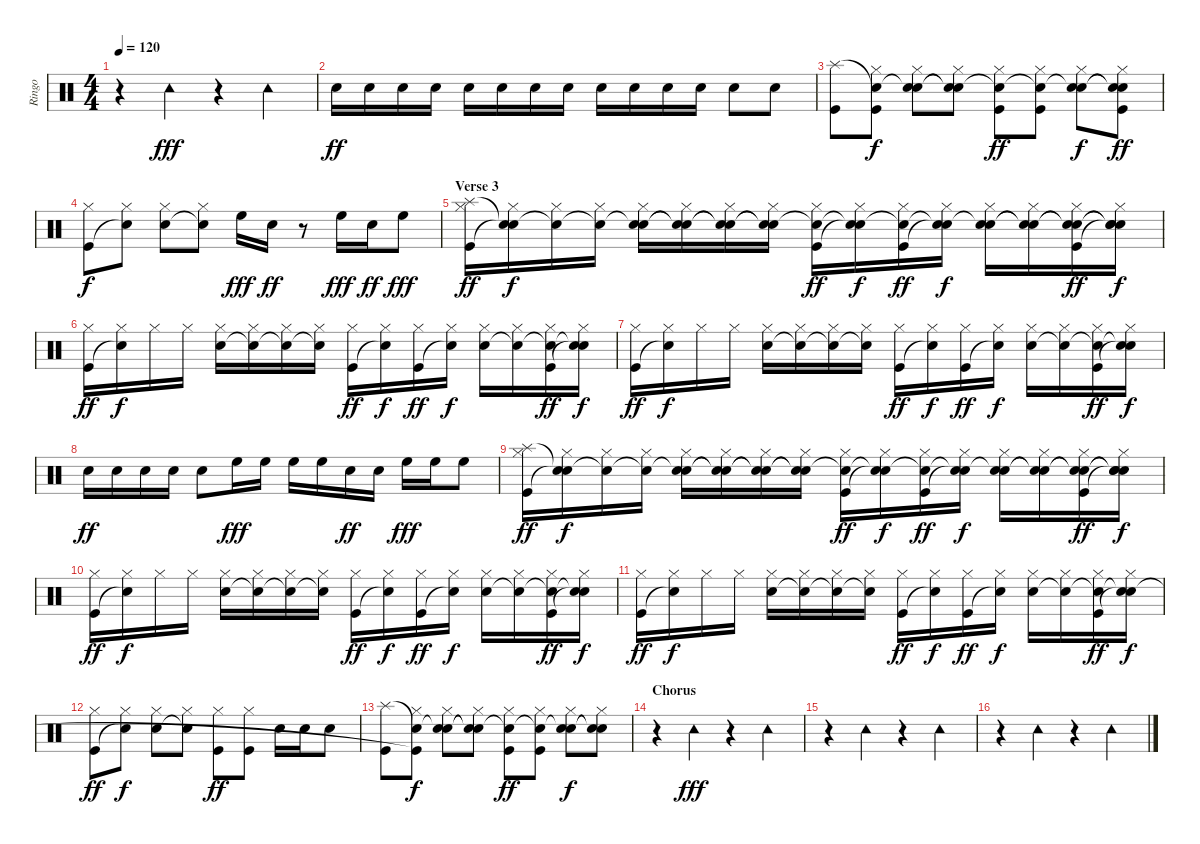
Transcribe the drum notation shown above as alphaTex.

\track ("Ringo" "Ringo") {instrument percussion}
\staff {score}
\articulation defaults
\ts (4 4)
\tempo 120
\clef neutral
\ks c
r.4{dy fff} "Tambourine (hit)".4 r.4 "Tambourine (hit)".4 |
"Electric Snare (hit)".16{dy ff} "Electric Snare (hit)".16 "Electric Snare (hit)".16 "Electric Snare (hit)".16 "Electric Snare (hit)".16 "Electric Snare (hit)".16 "Electric Snare (hit)".16 "Electric Snare (hit)".16 "Electric Snare (hit)".16 "Electric Snare (hit)".16 "Electric Snare (hit)".16 "Electric Snare (hit)".16 "Electric Snare (hit)".8 "Electric Snare (hit)".8 |
("Splash (hit)" "Kick (hit)").8 ("Snare (hit)"{t} "Hi-Hat (closed)" "Kick (hit)").8{dy f} ("Snare (hit)"{t} "Hi-Hat (closed)" "Electric Snare (hit)").8 ("Snare (hit)"{t} "Hi-Hat (closed)" "Snare (hit)"{t}).8 ("Snare (hit)"{t} "Hi-Hat (closed)" "Kick (hit)").8{dy ff} ("Snare (hit)"{t} "Hi-Hat (closed)" "Kick (hit)").8 ("Snare (hit)"{t} "Hi-Hat (closed)" "Electric Snare (hit)").8{dy f} ("Snare (hit)"{t} "Hi-Hat (closed)" "Snare (hit)"{t} "Kick (hit)").8{dy ff} |
("Hi-Hat (closed)" "Kick (hit)").8{dy f} ("Hi-Hat (closed)" "Snare (hit)"{t}).8 ("Hi-Hat (closed)" "Electric Snare (hit)").8 ("Hi-Hat (closed)" "Snare (hit)"{t}).8 "High Floor Tom (hit)".16{dy fff} "Electric Snare (hit)".16{dy ff} r.8 "High Floor Tom (hit)".16{dy fff} "Electric Snare (hit)".16{dy ff} "High Floor Tom (hit)".8{dy fff} |
\section ("" "Verse 3")
("Splash (hit)" "Hi-Hat (closed)" "Kick (hit)").16{dy ff} ("Snare (hit)"{t} "Hi-Hat (closed)" "Snare (hit)"{t}).16{dy f} ("Snare (hit)"{t} "Hi-Hat (closed)").16 ("Snare (hit)"{t} "Hi-Hat (closed)").16 ("Snare (hit)"{t} "Hi-Hat (closed)" "Electric Snare (hit)").16 ("Snare (hit)"{t} "Hi-Hat (closed)" "Snare (hit)"{t}).16 ("Snare (hit)"{t} "Hi-Hat (closed)" "Snare (hit)"{t}).16 ("Snare (hit)"{t} "Hi-Hat (closed)" "Snare (hit)"{t}).16 ("Snare (hit)"{t} "Hi-Hat (closed)" "Kick (hit)").16{dy ff} ("Snare (hit)"{t} "Hi-Hat (closed)" "Snare (hit)"{t}).16{dy f} ("Snare (hit)"{t} "Hi-Hat (closed)" "Kick (hit)").16{dy ff} ("Snare (hit)"{t} "Hi-Hat (closed)" "Snare (hit)"{t}).16{dy f} ("Snare (hit)"{t} "Hi-Hat (closed)" "Electric Snare (hit)").16 ("Snare (hit)"{t} "Hi-Hat (closed)" "Snare (hit)"{t}).16 ("Snare (hit)"{t} "Hi-Hat (closed)" "Snare (hit)"{t} "Kick (hit)").16{dy ff} ("Snare (hit)"{t} "Hi-Hat (closed)" "Snare (hit)"{t} "Snare (hit)"{t}).16{dy f} |
("Hi-Hat (closed)" "Kick (hit)").16{dy ff} ("Hi-Hat (closed)" "Snare (hit)"{t}).16{dy f} "Hi-Hat (closed)".16 "Hi-Hat (closed)".16 ("Hi-Hat (closed)" "Electric Snare (hit)").16 ("Hi-Hat (closed)" "Snare (hit)"{t}).16 ("Hi-Hat (closed)" "Snare (hit)"{t}).16 ("Hi-Hat (closed)" "Snare (hit)"{t}).16 ("Hi-Hat (closed)" "Kick (hit)").16{dy ff} ("Hi-Hat (closed)" "Snare (hit)"{t}).16{dy f} ("Hi-Hat (closed)" "Kick (hit)").16{dy ff} ("Hi-Hat (closed)" "Snare (hit)"{t}).16{dy f} ("Hi-Hat (closed)" "Electric Snare (hit)").16 ("Hi-Hat (closed)" "Snare (hit)"{t}).16 ("Hi-Hat (closed)" "Snare (hit)"{t} "Kick (hit)").16{dy ff} ("Hi-Hat (closed)" "Snare (hit)"{t} "Snare (hit)"{t}).16{dy f} |
("Hi-Hat (closed)" "Kick (hit)").16{dy ff} ("Hi-Hat (closed)" "Snare (hit)"{t}).16{dy f} "Hi-Hat (closed)".16 "Hi-Hat (closed)".16 ("Hi-Hat (closed)" "Electric Snare (hit)").16 ("Hi-Hat (closed)" "Snare (hit)"{t}).16 ("Hi-Hat (closed)" "Snare (hit)"{t}).16 ("Hi-Hat (closed)" "Snare (hit)"{t}).16 ("Hi-Hat (closed)" "Kick (hit)").16{dy ff} ("Hi-Hat (closed)" "Snare (hit)"{t}).16{dy f} ("Hi-Hat (closed)" "Kick (hit)").16{dy ff} ("Hi-Hat (closed)" "Snare (hit)"{t}).16{dy f} ("Hi-Hat (closed)" "Electric Snare (hit)").16 ("Hi-Hat (closed)" "Snare (hit)"{t}).16 ("Hi-Hat (closed)" "Snare (hit)"{t} "Kick (hit)").16{dy ff} ("Hi-Hat (closed)" "Snare (hit)"{t} "Snare (hit)"{t}).16{dy f} |
"Electric Snare (hit)".16{dy ff} "Electric Snare (hit)".16 "Electric Snare (hit)".16 "Electric Snare (hit)".16 "Electric Snare (hit)".8 "High Floor Tom (hit)".16{dy fff} "High Floor Tom (hit)".16 "High Floor Tom (hit)".16 "High Floor Tom (hit)".16 "Electric Snare (hit)".16{dy ff} "Electric Snare (hit)".16 "High Floor Tom (hit)".16{dy fff} "High Floor Tom (hit)".16 "High Floor Tom (hit)".8 |
("Splash (hit)" "Hi-Hat (closed)" "Kick (hit)").16{dy ff} ("Snare (hit)"{t} "Hi-Hat (closed)" "Snare (hit)"{t}).16{dy f} ("Snare (hit)"{t} "Hi-Hat (closed)").16 ("Snare (hit)"{t} "Hi-Hat (closed)").16 ("Snare (hit)"{t} "Hi-Hat (closed)" "Electric Snare (hit)").16 ("Snare (hit)"{t} "Hi-Hat (closed)" "Snare (hit)"{t}).16 ("Snare (hit)"{t} "Hi-Hat (closed)" "Snare (hit)"{t}).16 ("Snare (hit)"{t} "Hi-Hat (closed)" "Snare (hit)"{t}).16 ("Snare (hit)"{t} "Hi-Hat (closed)" "Kick (hit)").16{dy ff} ("Snare (hit)"{t} "Hi-Hat (closed)" "Snare (hit)"{t}).16{dy f} ("Snare (hit)"{t} "Hi-Hat (closed)" "Kick (hit)").16{dy ff} ("Snare (hit)"{t} "Hi-Hat (closed)" "Snare (hit)"{t}).16{dy f} ("Snare (hit)"{t} "Hi-Hat (closed)" "Electric Snare (hit)").16 ("Snare (hit)"{t} "Hi-Hat (closed)" "Snare (hit)"{t}).16 ("Snare (hit)"{t} "Hi-Hat (closed)" "Snare (hit)"{t} "Kick (hit)").16{dy ff} ("Snare (hit)"{t} "Hi-Hat (closed)" "Snare (hit)"{t} "Snare (hit)"{t}).16{dy f} |
("Hi-Hat (closed)" "Kick (hit)").16{dy ff} ("Hi-Hat (closed)" "Snare (hit)"{t}).16{dy f} "Hi-Hat (closed)".16 "Hi-Hat (closed)".16 ("Hi-Hat (closed)" "Electric Snare (hit)").16 ("Hi-Hat (closed)" "Snare (hit)"{t}).16 ("Hi-Hat (closed)" "Snare (hit)"{t}).16 ("Hi-Hat (closed)" "Snare (hit)"{t}).16 ("Hi-Hat (closed)" "Kick (hit)").16{dy ff} ("Hi-Hat (closed)" "Snare (hit)"{t}).16{dy f} ("Hi-Hat (closed)" "Kick (hit)").16{dy ff} ("Hi-Hat (closed)" "Snare (hit)"{t}).16{dy f} ("Hi-Hat (closed)" "Electric Snare (hit)").16 ("Hi-Hat (closed)" "Snare (hit)"{t}).16 ("Hi-Hat (closed)" "Snare (hit)"{t} "Kick (hit)").16{dy ff} ("Hi-Hat (closed)" "Snare (hit)"{t} "Snare (hit)"{t}).16{dy f} |
("Hi-Hat (closed)" "Kick (hit)").16{dy ff} ("Hi-Hat (closed)" "Snare (hit)"{t}).16{dy f} "Hi-Hat (closed)".16 "Hi-Hat (closed)".16 ("Hi-Hat (closed)" "Electric Snare (hit)").16 ("Hi-Hat (closed)" "Snare (hit)"{t}).16 ("Hi-Hat (closed)" "Snare (hit)"{t}).16 ("Hi-Hat (closed)" "Snare (hit)"{t}).16 ("Hi-Hat (closed)" "Kick (hit)").16{dy ff} ("Hi-Hat (closed)" "Snare (hit)"{t}).16{dy f} ("Hi-Hat (closed)" "Kick (hit)").16{dy ff} ("Hi-Hat (closed)" "Snare (hit)"{t}).16{dy f} ("Hi-Hat (closed)" "Electric Snare (hit)").16 ("Hi-Hat (closed)" "Snare (hit)"{t}).16 ("Hi-Hat (closed)" "Snare (hit)"{t} "Kick (hit)").16{dy ff} ("Hi-Hat (closed)" "Snare (hit)"{t} "Snare (hit)"{t}).16{dy f} |
("Hi-Hat (closed)" "Kick (hit)").8{dy ff} ("Hi-Hat (closed)" "Snare (hit)"{t}).8{dy f} ("Hi-Hat (closed)" "Electric Snare (hit)").8 ("Hi-Hat (closed)" "Snare (hit)"{t}).8 ("Hi-Hat (closed)" "Kick (hit)").8{dy ff} ("Hi-Hat (closed)" "Kick (hit)").8 "Electric Snare (hit)".16 "Electric Snare (hit)".16 "Electric Snare (hit)".8 |
("Splash (hit)" "Kick (hit)").8 ("Snare (hit)"{t} "Hi-Hat (closed)" "Kick (hit)"{t}).8{dy f} ("Snare (hit)"{t} "Hi-Hat (closed)" "Electric Snare (hit)").8 ("Snare (hit)"{t} "Hi-Hat (closed)" "Snare (hit)"{t}).8 ("Snare (hit)"{t} "Hi-Hat (closed)" "Kick (hit)").8{dy ff} ("Snare (hit)"{t} "Hi-Hat (closed)" "Kick (hit)").8 ("Snare (hit)"{t} "Hi-Hat (closed)" "Electric Snare (hit)").8{dy f} ("Snare (hit)"{t} "Hi-Hat (closed)" "Snare (hit)"{t}).8 |
\section ("" "Chorus")
r.4 "Tambourine (hit)".4{dy fff} r.4 "Tambourine (hit)".4 |
r.4 "Tambourine (hit)".4 r.4 "Tambourine (hit)".4 |
r.4 "Tambourine (hit)".4 r.4 "Tambourine (hit)".4
